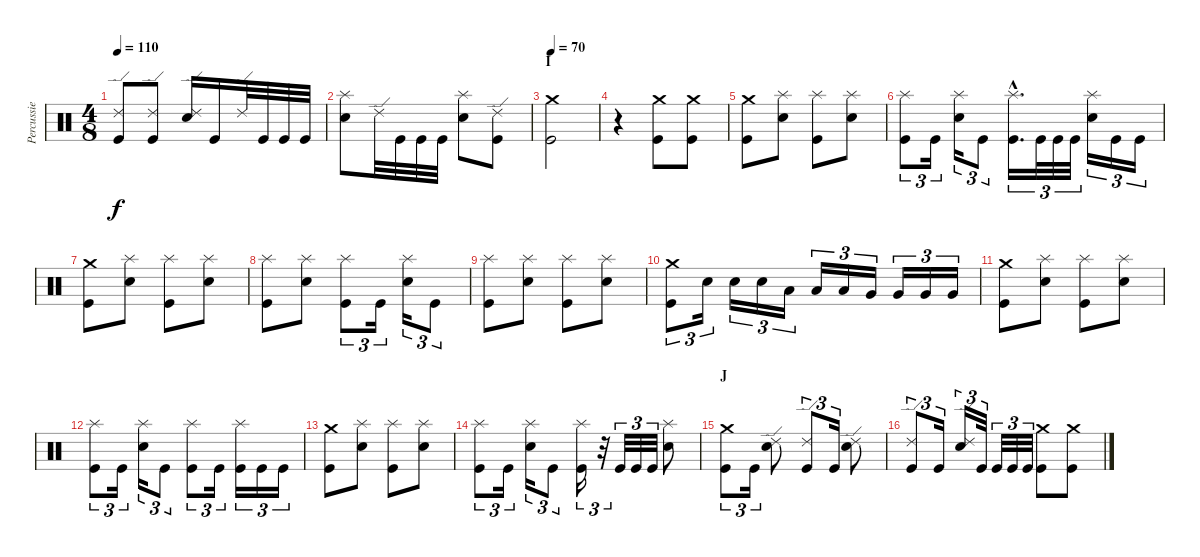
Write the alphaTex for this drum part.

\track ("Percussie" "Percussie") {instrument percussion}
\staff {score}
\articulation defaults
\ts (4 8)
\tempo 110
\clef neutral
\ks c
("Ride (edge) 2" "Kick (hit)").8{dy f} ("Ride (edge) 2" "Kick (hit)").8 ("Ride (edge) 2" "Electric Snare (hit)").16 "Kick (hit)".16 "Ride (edge) 2".32 "Kick (hit)".32 "Kick (hit)".32 "Kick (hit)".32 |
("Splash (hit)" "Electric Snare (hit)").8 "Ride (edge) 2".32 "Kick (hit)".32 "Kick (hit)".32 "Kick (hit)".32 ("Splash (hit)" "Electric Snare (hit)").8 ("Ride (edge) 2" "Kick (hit)").8 |
\section ("" "I")
\tempo 70
("Crash medium (hit)" "Kick (hit)").2 |
r.4 ("Crash medium (hit)" "Kick (hit)").8 ("Crash medium (hit)" "Kick (hit)").8 |
("Crash medium (hit)" "Kick (hit)").8 ("Splash (hit)" "Electric Snare (hit)").8 ("Splash (hit)" "Kick (hit)").8 ("Splash (hit)" "Electric Snare (hit)").8 |
("Splash (hit)" "Kick (hit)").8{tu (3 2)} "Kick (hit)".16{tu (3 2)} ("Splash (hit)" "Electric Snare (hit)").16{tu (3 2)} "Kick (hit)".8{tu (3 2)} ("Splash (hit)"{hac} "Kick (hit)"{hac}).16{d tu (3 2)} "Kick (hit)".32{tu (3 2)} "Kick (hit)".32{tu (3 2)} "Kick (hit)".32{tu (3 2)} ("Splash (hit)" "Electric Snare (hit)").16{tu (3 2)} "Kick (hit)".16{tu (3 2)} "Kick (hit)".16{tu (3 2)} |
("Crash medium (hit)" "Kick (hit)").8 ("Splash (hit)" "Electric Snare (hit)").8 ("Splash (hit)" "Kick (hit)").8 ("Splash (hit)" "Electric Snare (hit)").8 |
("Splash (hit)" "Kick (hit)").8 ("Splash (hit)" "Electric Snare (hit)").8 ("Splash (hit)" "Kick (hit)").8{tu (3 2)} "Kick (hit)".16{tu (3 2)} ("Splash (hit)" "Electric Snare (hit)").16{tu (3 2)} "Kick (hit)".8{tu (3 2)} |
("Splash (hit)" "Kick (hit)").8 ("Splash (hit)" "Electric Snare (hit)").8 ("Splash (hit)" "Kick (hit)").8 ("Splash (hit)" "Electric Snare (hit)").8 |
("Crash medium (hit)" "Kick (hit)").8{tu (3 2)} "Electric Snare (hit)".16{tu (3 2)} "Electric Snare (hit)".16{tu (3 2)} "Electric Snare (hit)".16{tu (3 2)} "Low Tom (hit)".16{tu (3 2)} "Low Tom (hit)".16{tu (3 2)} "Low Tom (hit)".16{tu (3 2)} "Very Low Tom (hit)".16{tu (3 2)} "Very Low Tom (hit)".16{tu (3 2)} "Very Low Tom (hit)".16{tu (3 2)} "Very Low Tom (hit)".16{tu (3 2)} |
("Crash medium (hit)" "Kick (hit)").8 ("Splash (hit)" "Electric Snare (hit)").8 ("Splash (hit)" "Kick (hit)").8 ("Splash (hit)" "Electric Snare (hit)").8 |
("Splash (hit)" "Kick (hit)").8{tu (3 2)} "Kick (hit)".16{tu (3 2)} ("Splash (hit)" "Electric Snare (hit)").16{tu (3 2)} "Kick (hit)".8{tu (3 2)} ("Splash (hit)" "Kick (hit)").8{tu (3 2)} "Kick (hit)".16{tu (3 2)} ("Splash (hit)" "Kick (hit)").16{tu (3 2)} "Kick (hit)".16{tu (3 2)} "Kick (hit)".16{tu (3 2)} |
("Crash medium (hit)" "Kick (hit)").8 ("Splash (hit)" "Electric Snare (hit)").8 ("Splash (hit)" "Kick (hit)").8 ("Splash (hit)" "Electric Snare (hit)").8 |
("Splash (hit)" "Kick (hit)").8{tu (3 2)} "Kick (hit)".16{tu (3 2)} ("Splash (hit)" "Electric Snare (hit)").16{tu (3 2)} "Kick (hit)".8{tu (3 2)} ("Splash (hit)" "Kick (hit)").16{tu (3 2)} r.32{tu (3 2)} "Kick (hit)".32{tu (3 2)} "Kick (hit)".32{tu (3 2)} "Kick (hit)".32{tu (3 2)} ("Splash (hit)" "Electric Snare (hit)").8 |
\section ("" "J")
("Crash medium (hit)" "Kick (hit)").8{tu (3 2)} "Kick (hit)".16{tu (3 2)} ("Ride (edge) 2" "Electric Snare (hit)").8 ("Ride (edge) 2" "Kick (hit)").8{tu (3 2)} "Kick (hit)".16{tu (3 2)} ("Ride (edge) 2" "Electric Snare (hit)").8 |
("Ride (edge) 2" "Kick (hit)").8{tu (3 2)} "Kick (hit)".16{tu (3 2)} ("Ride (edge) 2" "Electric Snare (hit)").16{tu (3 2)} "Kick (hit)".32{tu (3 2)} "Kick (hit)".32{tu (3 2)} "Kick (hit)".32{tu (3 2)} "Kick (hit)".32{tu (3 2)} ("Crash medium (hit)" "Kick (hit)").8 ("Crash medium (hit)" "Kick (hit)").8
